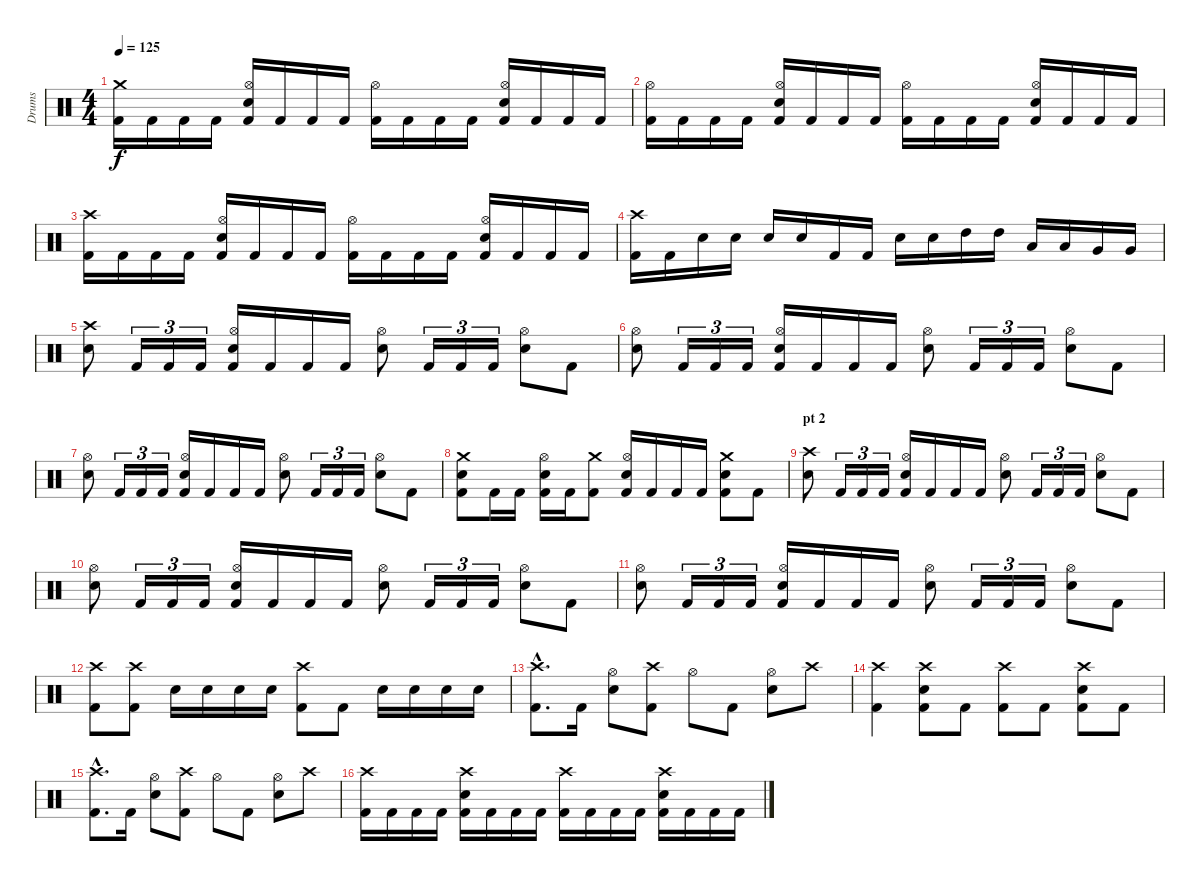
\track ("Drums" "Drums") {instrument percussion}
\staff {score}
\articulation defaults
\ts (4 4)
\tempo 125
\clef neutral
\ks c
("Crash medium (hit)" "Kick (hit) 2").16{dy f} "Kick (hit) 2".16 "Kick (hit) 2".16 "Kick (hit) 2".16 ("Hi-Hat (open)" "Electric Snare (hit)" "Kick (hit) 2").16 "Kick (hit) 2".16 "Kick (hit) 2".16 "Kick (hit) 2".16 ("Hi-Hat (open)" "Kick (hit) 2").16 "Kick (hit) 2".16 "Kick (hit) 2".16 "Kick (hit) 2".16 ("Hi-Hat (open)" "Electric Snare (hit)" "Kick (hit) 2").16 "Kick (hit) 2".16 "Kick (hit) 2".16 "Kick (hit) 2".16 |
("Hi-Hat (open)" "Kick (hit) 2").16 "Kick (hit) 2".16 "Kick (hit) 2".16 "Kick (hit) 2".16 ("Hi-Hat (open)" "Electric Snare (hit)" "Kick (hit) 2").16 "Kick (hit) 2".16 "Kick (hit) 2".16 "Kick (hit) 2".16 ("Hi-Hat (open)" "Kick (hit) 2").16 "Kick (hit) 2".16 "Kick (hit) 2".16 "Kick (hit) 2".16 ("Hi-Hat (open)" "Electric Snare (hit)" "Kick (hit) 2").16 "Kick (hit) 2".16 "Kick (hit) 2".16 "Kick (hit) 2".16 |
("Crash high (hit)" "Kick (hit) 2").16 "Kick (hit) 2".16 "Kick (hit) 2".16 "Kick (hit) 2".16 ("Hi-Hat (open)" "Electric Snare (hit)" "Kick (hit) 2").16 "Kick (hit) 2".16 "Kick (hit) 2".16 "Kick (hit) 2".16 ("Hi-Hat (open)" "Kick (hit) 2").16 "Kick (hit) 2".16 "Kick (hit) 2".16 "Kick (hit) 2".16 ("Hi-Hat (open)" "Electric Snare (hit)" "Kick (hit) 2").16 "Kick (hit) 2".16 "Kick (hit) 2".16 "Kick (hit) 2".16 |
("Crash high (hit)" "Kick (hit) 2").16 "Kick (hit) 2".16 "Electric Snare (hit)".16 "Electric Snare (hit)".16 "Electric Snare (hit)".16 "Electric Snare (hit)".16 "Kick (hit) 2".16 "Kick (hit) 2".16 "Electric Snare (hit)".16 "Electric Snare (hit)".16 "High Tom (hit)".16 "High Tom (hit)".16 "Low Tom (hit)".16 "Low Tom (hit)".16 "Very Low Tom (hit)".16 "Very Low Tom (hit)".16 |
("Crash high (hit)" "Electric Snare (hit)").8 "Kick (hit) 2".16{tu (3 2)} "Kick (hit) 2".16{tu (3 2)} "Kick (hit) 2".16{tu (3 2)} ("Hi-Hat (open)" "Electric Snare (hit)" "Kick (hit) 2").16 "Kick (hit) 2".16 "Kick (hit) 2".16 "Kick (hit) 2".16 ("Hi-Hat (open)" "Electric Snare (hit)").8 "Kick (hit) 2".16{tu (3 2)} "Kick (hit) 2".16{tu (3 2)} "Kick (hit) 2".16{tu (3 2)} ("Hi-Hat (open)" "Electric Snare (hit)").8 "Kick (hit) 2".8 |
("Hi-Hat (open)" "Electric Snare (hit)").8 "Kick (hit) 2".16{tu (3 2)} "Kick (hit) 2".16{tu (3 2)} "Kick (hit) 2".16{tu (3 2)} ("Hi-Hat (open)" "Electric Snare (hit)" "Kick (hit) 2").16 "Kick (hit) 2".16 "Kick (hit) 2".16 "Kick (hit) 2".16 ("Hi-Hat (open)" "Electric Snare (hit)").8 "Kick (hit) 2".16{tu (3 2)} "Kick (hit) 2".16{tu (3 2)} "Kick (hit) 2".16{tu (3 2)} ("Hi-Hat (open)" "Electric Snare (hit)").8 "Kick (hit) 2".8 |
("Hi-Hat (open)" "Electric Snare (hit)").8 "Kick (hit) 2".16{tu (3 2)} "Kick (hit) 2".16{tu (3 2)} "Kick (hit) 2".16{tu (3 2)} ("Hi-Hat (open)" "Electric Snare (hit)" "Kick (hit) 2").16 "Kick (hit) 2".16 "Kick (hit) 2".16 "Kick (hit) 2".16 ("Hi-Hat (open)" "Electric Snare (hit)").8 "Kick (hit) 2".16{tu (3 2)} "Kick (hit) 2".16{tu (3 2)} "Kick (hit) 2".16{tu (3 2)} ("Hi-Hat (open)" "Electric Snare (hit)").8 "Kick (hit) 2".8 |
("Crash medium (hit)" "Electric Snare (hit)" "Kick (hit) 2").8 "Kick (hit) 2".16 "Kick (hit) 2".16 ("Hi-Hat (open)" "Electric Snare (hit)" "Kick (hit) 2").16 "Kick (hit) 2".16 ("Crash medium (hit)" "Kick (hit) 2").8 ("Hi-Hat (open)" "Electric Snare (hit)" "Kick (hit) 2").16 "Kick (hit) 2".16 "Kick (hit) 2".16 "Kick (hit) 2".16 ("Crash medium (hit)" "Electric Snare (hit)" "Kick (hit) 2").8 "Kick (hit) 2".8 |
\section ("" "pt 2")
("Crash high (hit)" "Electric Snare (hit)").8 "Kick (hit) 2".16{tu (3 2)} "Kick (hit) 2".16{tu (3 2)} "Kick (hit) 2".16{tu (3 2)} ("Hi-Hat (open)" "Electric Snare (hit)" "Kick (hit) 2").16 "Kick (hit) 2".16 "Kick (hit) 2".16 "Kick (hit) 2".16 ("Hi-Hat (open)" "Electric Snare (hit)").8 "Kick (hit) 2".16{tu (3 2)} "Kick (hit) 2".16{tu (3 2)} "Kick (hit) 2".16{tu (3 2)} ("Hi-Hat (open)" "Electric Snare (hit)").8 "Kick (hit) 2".8 |
("Hi-Hat (open)" "Electric Snare (hit)").8 "Kick (hit) 2".16{tu (3 2)} "Kick (hit) 2".16{tu (3 2)} "Kick (hit) 2".16{tu (3 2)} ("Hi-Hat (open)" "Electric Snare (hit)" "Kick (hit) 2").16 "Kick (hit) 2".16 "Kick (hit) 2".16 "Kick (hit) 2".16 ("Hi-Hat (open)" "Electric Snare (hit)").8 "Kick (hit) 2".16{tu (3 2)} "Kick (hit) 2".16{tu (3 2)} "Kick (hit) 2".16{tu (3 2)} ("Hi-Hat (open)" "Electric Snare (hit)").8 "Kick (hit) 2".8 |
("Hi-Hat (open)" "Electric Snare (hit)").8 "Kick (hit) 2".16{tu (3 2)} "Kick (hit) 2".16{tu (3 2)} "Kick (hit) 2".16{tu (3 2)} ("Hi-Hat (open)" "Electric Snare (hit)" "Kick (hit) 2").16 "Kick (hit) 2".16 "Kick (hit) 2".16 "Kick (hit) 2".16 ("Hi-Hat (open)" "Electric Snare (hit)").8 "Kick (hit) 2".16{tu (3 2)} "Kick (hit) 2".16{tu (3 2)} "Kick (hit) 2".16{tu (3 2)} ("Hi-Hat (open)" "Electric Snare (hit)").8 "Kick (hit) 2".8 |
("Crash high (hit)" "Kick (hit) 2").8 ("Crash high (hit)" "Kick (hit) 2").8 "Electric Snare (hit)".16 "Electric Snare (hit)".16 "Electric Snare (hit)".16 "Electric Snare (hit)".16 ("Crash high (hit)" "Kick (hit) 2").8 "Kick (hit) 2".8 "Electric Snare (hit)".16 "Electric Snare (hit)".16 "Electric Snare (hit)".16 "Electric Snare (hit)".16 |
("Crash high (hit)"{hac} "Kick (hit) 2"{hac}).8{d} "Kick (hit) 2".16 ("Hi-Hat (open)" "Electric Snare (hit)").8 ("Crash high (hit)" "Kick (hit) 2").8 "Hi-Hat (open)".8 "Kick (hit) 2".8 ("Hi-Hat (open)" "Electric Snare (hit)").8 "Crash high (hit)".8 |
("Crash high (hit)" "Kick (hit) 2").4 ("Crash high (hit)" "Electric Snare (hit)" "Kick (hit) 2").8 "Kick (hit) 2".8 ("Crash high (hit)" "Kick (hit) 2").8 "Kick (hit) 2".8 ("Crash high (hit)" "Electric Snare (hit)" "Kick (hit) 2").8 "Kick (hit) 2".8 |
("Crash high (hit)"{hac} "Kick (hit) 2"{hac}).8{d} "Kick (hit) 2".16 ("Hi-Hat (open)" "Electric Snare (hit)").8 ("Crash high (hit)" "Kick (hit) 2").8 "Hi-Hat (open)".8 "Kick (hit) 2".8 ("Hi-Hat (open)" "Electric Snare (hit)").8 "Crash high (hit)".8 |
("Crash high (hit)" "Kick (hit) 2").16 "Kick (hit) 2".16 "Kick (hit) 2".16 "Kick (hit) 2".16 ("Crash high (hit)" "Electric Snare (hit)" "Kick (hit) 2").16 "Kick (hit) 2".16 "Kick (hit) 2".16 "Kick (hit) 2".16 ("Crash high (hit)" "Kick (hit) 2").16 "Kick (hit) 2".16 "Kick (hit) 2".16 "Kick (hit) 2".16 ("Crash high (hit)" "Electric Snare (hit)" "Kick (hit) 2").16 "Kick (hit) 2".16 "Kick (hit) 2".16 "Kick (hit) 2".16
